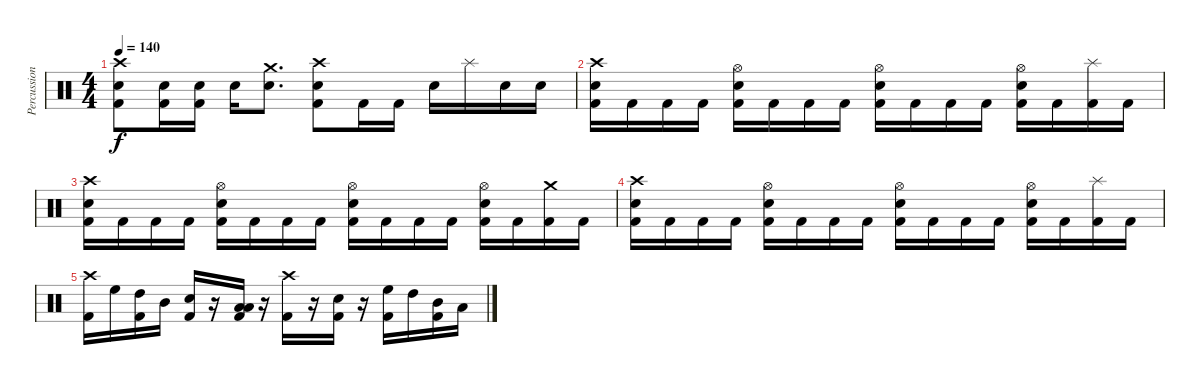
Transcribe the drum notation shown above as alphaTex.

\track ("Percussion" "Percussion") {instrument percussion}
\staff {score}
\articulation defaults
\ts (4 4)
\tempo 140
\clef neutral
\ks c
("Crash high (hit)" "Snare (hit) 2" "Kick (hit) 2").8{dy f} ("Snare (hit) 2" "Kick (hit) 2").16 ("Snare (hit) 2" "Kick (hit) 2").16 "Snare (hit) 2".16 ("Crash medium (hit)" "Snare (hit) 2").8{d} ("Crash high (hit)" "Snare (hit) 2" "Kick (hit) 2").8 "Kick (hit) 2".16 "Kick (hit) 2".16 "Snare (hit) 2".16 "Splash (hit)".16 "Snare (hit) 2".16 "Snare (hit) 2".16 |
("Crash high (hit)" "Snare (hit) 2" "Kick (hit) 2").16 "Kick (hit) 2".16 "Kick (hit) 2".16 "Kick (hit) 2".16 ("Hi-Hat (open)" "Snare (hit) 2" "Kick (hit) 2").16 "Kick (hit) 2".16 "Kick (hit) 2".16 "Kick (hit) 2".16 ("Hi-Hat (open)" "Snare (hit) 2" "Kick (hit) 2").16 "Kick (hit) 2".16 "Kick (hit) 2".16 "Kick (hit) 2".16 ("Hi-Hat (open)" "Snare (hit) 2" "Kick (hit) 2").16 "Kick (hit) 2".16 ("Splash (hit)" "Kick (hit) 2").16 "Kick (hit) 2".16 |
("Crash high (hit)" "Snare (hit) 2" "Kick (hit) 2").16 "Kick (hit) 2".16 "Kick (hit) 2".16 "Kick (hit) 2".16 ("Hi-Hat (open)" "Snare (hit) 2" "Kick (hit) 2").16 "Kick (hit) 2".16 "Kick (hit) 2".16 "Kick (hit) 2".16 ("Hi-Hat (open)" "Snare (hit) 2" "Kick (hit) 2").16 "Kick (hit) 2".16 "Kick (hit) 2".16 "Kick (hit) 2".16 ("Hi-Hat (open)" "Snare (hit) 2" "Kick (hit) 2").16 "Kick (hit) 2".16 ("Crash medium (hit)" "Kick (hit) 2").16 "Kick (hit) 2".16 |
("Crash high (hit)" "Snare (hit) 2" "Kick (hit) 2").16 "Kick (hit) 2".16 "Kick (hit) 2".16 "Kick (hit) 2".16 ("Hi-Hat (open)" "Snare (hit) 2" "Kick (hit) 2").16 "Kick (hit) 2".16 "Kick (hit) 2".16 "Kick (hit) 2".16 ("Hi-Hat (open)" "Snare (hit) 2" "Kick (hit) 2").16 "Kick (hit) 2".16 "Kick (hit) 2".16 "Kick (hit) 2".16 ("Hi-Hat (open)" "Snare (hit) 2" "Kick (hit) 2").16 "Kick (hit) 2".16 ("Splash (hit)" "Kick (hit) 2").16 "Kick (hit) 2".16 |
("Crash high (hit)" "Kick (hit) 2").16 "High Floor Tom (hit)".16 ("High Tom (hit)" "Kick (hit) 2").16 "Mid Tom (hit)".16 ("Snare (hit) 2" "Kick (hit) 2").16 r.16 ("Low Tom (hit)" "Low Floor Tom (hit)" "Kick (hit) 2").16 r.16 ("Crash high (hit)" "Kick (hit) 2").16 r.16 ("Snare (hit) 2" "Kick (hit) 2").16 r.16 ("High Floor Tom (hit)" "Kick (hit) 2").16 "High Tom (hit)".16 ("Mid Tom (hit)" "Kick (hit) 2").16 "Low Tom (hit)".16
